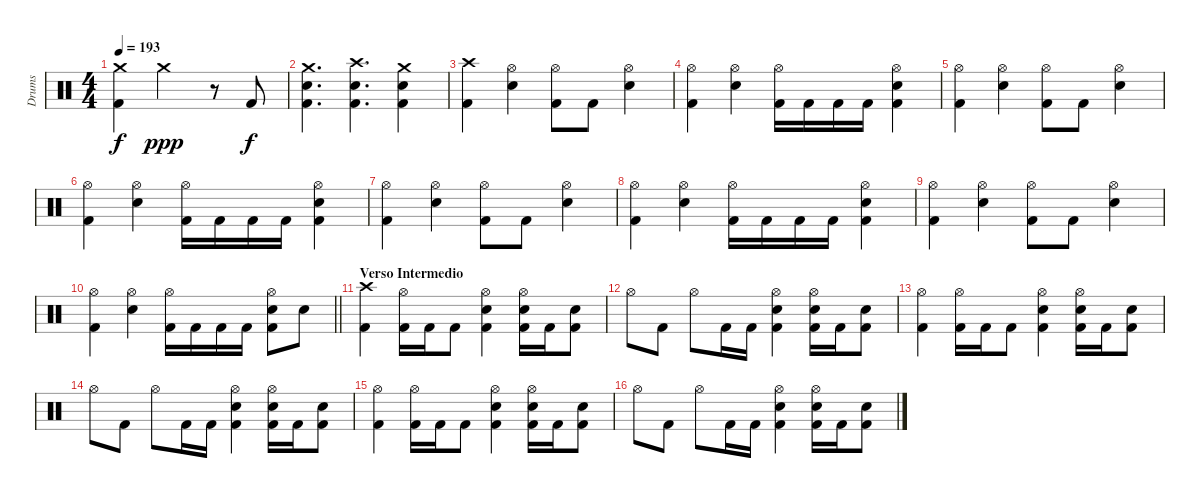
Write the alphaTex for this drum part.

\track ("Drums" "Drums") {instrument percussion}
\staff {score}
\articulation defaults
\ts (4 4)
\tempo 193
\clef neutral
\ks c
("Crash medium (hit)" "Kick (hit) 2").4{dy f} "Crash medium (hit)".2{dy ppp} r.8 "Kick (hit) 2".8{dy f} |
("Crash medium (hit)" "Electric Snare (hit)" "Kick (hit) 2").4{d} ("Crash high (hit)" "Electric Snare (hit)" "Kick (hit) 2").4{d} ("Crash medium (hit)" "Electric Snare (hit)" "Kick (hit) 2").4 |
("Crash high (hit)" "Kick (hit) 2").4 ("Hi-Hat (open)" "Electric Snare (hit)").4 ("Hi-Hat (open)" "Kick (hit) 2").8 "Kick (hit) 2".8 ("Hi-Hat (open)" "Electric Snare (hit)").4 |
("Hi-Hat (open)" "Kick (hit) 2").4 ("Hi-Hat (open)" "Electric Snare (hit)").4 ("Hi-Hat (open)" "Kick (hit) 2").16 "Kick (hit) 2".16 "Kick (hit) 2".16 "Kick (hit) 2".16 ("Hi-Hat (open)" "Electric Snare (hit)" "Kick (hit) 2").4 |
("Hi-Hat (open)" "Kick (hit) 2").4 ("Hi-Hat (open)" "Electric Snare (hit)").4 ("Hi-Hat (open)" "Kick (hit) 2").8 "Kick (hit) 2".8 ("Hi-Hat (open)" "Electric Snare (hit)").4 |
("Hi-Hat (open)" "Kick (hit) 2").4 ("Hi-Hat (open)" "Electric Snare (hit)").4 ("Hi-Hat (open)" "Kick (hit) 2").16 "Kick (hit) 2".16 "Kick (hit) 2".16 "Kick (hit) 2".16 ("Hi-Hat (open)" "Electric Snare (hit)" "Kick (hit) 2").4 |
("Hi-Hat (open)" "Kick (hit) 2").4 ("Hi-Hat (open)" "Electric Snare (hit)").4 ("Hi-Hat (open)" "Kick (hit) 2").8 "Kick (hit) 2".8 ("Hi-Hat (open)" "Electric Snare (hit)").4 |
("Hi-Hat (open)" "Kick (hit) 2").4 ("Hi-Hat (open)" "Electric Snare (hit)").4 ("Hi-Hat (open)" "Kick (hit) 2").16 "Kick (hit) 2".16 "Kick (hit) 2".16 "Kick (hit) 2".16 ("Hi-Hat (open)" "Electric Snare (hit)" "Kick (hit) 2").4 |
("Hi-Hat (open)" "Kick (hit) 2").4 ("Hi-Hat (open)" "Electric Snare (hit)").4 ("Hi-Hat (open)" "Kick (hit) 2").8 "Kick (hit) 2".8 ("Hi-Hat (open)" "Electric Snare (hit)").4 |
\barLineRight lightlight
("Hi-Hat (open)" "Kick (hit) 2").4 ("Hi-Hat (open)" "Electric Snare (hit)").4 ("Hi-Hat (open)" "Kick (hit) 2").16 "Kick (hit) 2".16 "Kick (hit) 2".16 "Kick (hit) 2".16 ("Hi-Hat (open)" "Electric Snare (hit)" "Kick (hit) 2").8 "Electric Snare (hit)".8 |
\section ("" "Verso Intermedio")
("Crash high (hit)" "Kick (hit) 2").4 ("Hi-Hat (open)" "Kick (hit) 2").16 "Kick (hit) 2".16 "Kick (hit) 2".8 ("Hi-Hat (open)" "Electric Snare (hit)" "Kick (hit) 2").4 ("Hi-Hat (open)" "Electric Snare (hit)" "Kick (hit) 2").16 "Kick (hit) 2".16 ("Electric Snare (hit)" "Kick (hit) 2").8 |
"Hi-Hat (open)".8 "Kick (hit) 2".8 "Hi-Hat (open)".8 "Kick (hit) 2".16 "Kick (hit) 2".16 ("Hi-Hat (open)" "Electric Snare (hit)" "Kick (hit) 2").4 ("Hi-Hat (open)" "Electric Snare (hit)" "Kick (hit) 2").16 "Kick (hit) 2".16 ("Electric Snare (hit)" "Kick (hit) 2").8 |
("Hi-Hat (open)" "Kick (hit) 2").4 ("Hi-Hat (open)" "Kick (hit) 2").16 "Kick (hit) 2".16 "Kick (hit) 2".8 ("Hi-Hat (open)" "Electric Snare (hit)" "Kick (hit) 2").4 ("Hi-Hat (open)" "Electric Snare (hit)" "Kick (hit) 2").16 "Kick (hit) 2".16 ("Electric Snare (hit)" "Kick (hit) 2").8 |
"Hi-Hat (open)".8 "Kick (hit) 2".8 "Hi-Hat (open)".8 "Kick (hit) 2".16 "Kick (hit) 2".16 ("Hi-Hat (open)" "Electric Snare (hit)" "Kick (hit) 2").4 ("Hi-Hat (open)" "Electric Snare (hit)" "Kick (hit) 2").16 "Kick (hit) 2".16 ("Electric Snare (hit)" "Kick (hit) 2").8 |
("Hi-Hat (open)" "Kick (hit) 2").4 ("Hi-Hat (open)" "Kick (hit) 2").16 "Kick (hit) 2".16 "Kick (hit) 2".8 ("Hi-Hat (open)" "Electric Snare (hit)" "Kick (hit) 2").4 ("Hi-Hat (open)" "Electric Snare (hit)" "Kick (hit) 2").16 "Kick (hit) 2".16 ("Electric Snare (hit)" "Kick (hit) 2").8 |
"Hi-Hat (open)".8 "Kick (hit) 2".8 "Hi-Hat (open)".8 "Kick (hit) 2".16 "Kick (hit) 2".16 ("Hi-Hat (open)" "Electric Snare (hit)" "Kick (hit) 2").4 ("Hi-Hat (open)" "Electric Snare (hit)" "Kick (hit) 2").16 "Kick (hit) 2".16 ("Electric Snare (hit)" "Kick (hit) 2").8
